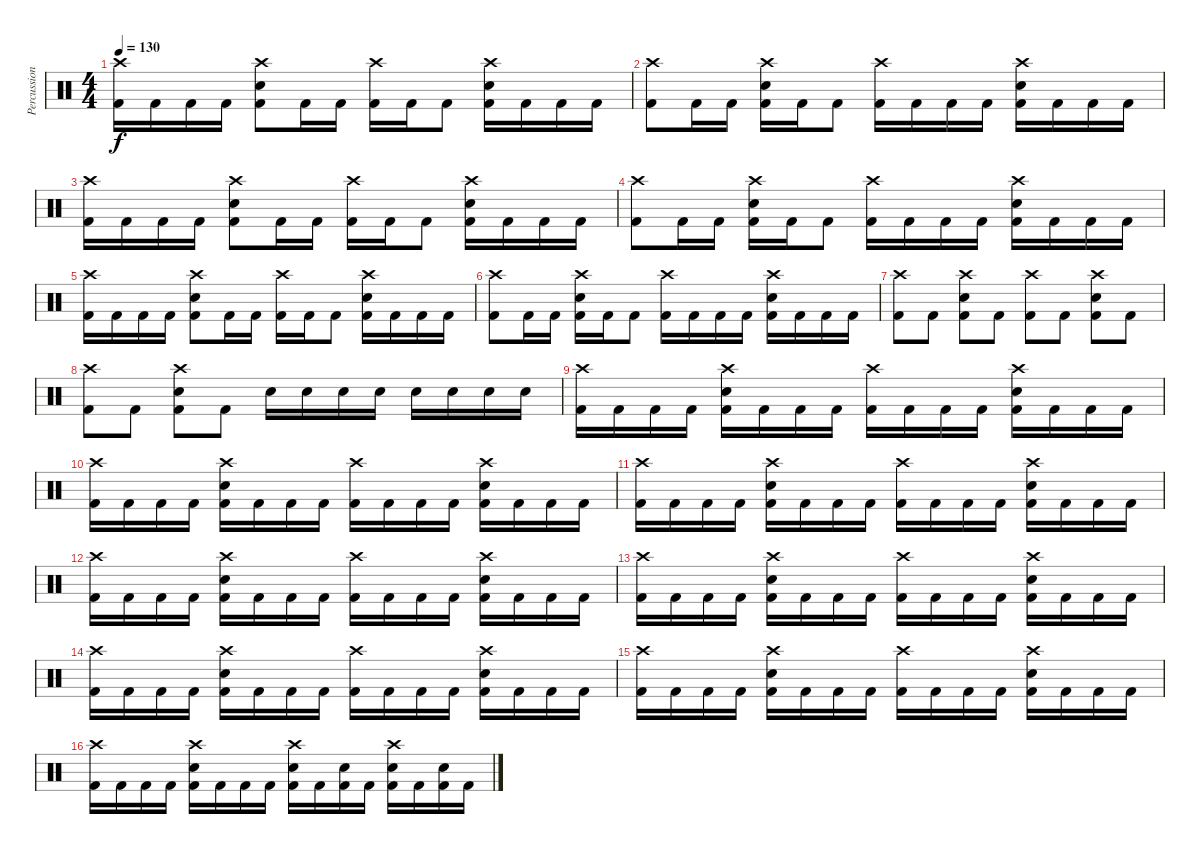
\track ("Percussion" "Percussion") {instrument percussion}
\staff {score}
\articulation defaults
\ts (4 4)
\tempo 130
\clef neutral
\ks c
("Crash high (hit)" "Kick (hit) 2").16{dy f} "Kick (hit) 2".16 "Kick (hit) 2".16 "Kick (hit) 2".16 ("Crash high (hit)" "Electric Snare (hit)" "Kick (hit) 2").8 "Kick (hit) 2".16 "Kick (hit) 2".16 ("Crash high (hit)" "Kick (hit) 2").16 "Kick (hit) 2".16 "Kick (hit) 2".8 ("Crash high (hit)" "Electric Snare (hit)" "Kick (hit) 2").16 "Kick (hit) 2".16 "Kick (hit) 2".16 "Kick (hit) 2".16 |
("Crash high (hit)" "Kick (hit) 2").8 "Kick (hit) 2".16 "Kick (hit) 2".16 ("Crash high (hit)" "Electric Snare (hit)" "Kick (hit) 2").16 "Kick (hit) 2".16 "Kick (hit) 2".8 ("Crash high (hit)" "Kick (hit) 2").16 "Kick (hit) 2".16 "Kick (hit) 2".16 "Kick (hit) 2".16 ("Crash high (hit)" "Electric Snare (hit)" "Kick (hit) 2").16 "Kick (hit) 2".16 "Kick (hit) 2".16 "Kick (hit) 2".16 |
("Crash high (hit)" "Kick (hit) 2").16 "Kick (hit) 2".16 "Kick (hit) 2".16 "Kick (hit) 2".16 ("Crash high (hit)" "Electric Snare (hit)" "Kick (hit) 2").8 "Kick (hit) 2".16 "Kick (hit) 2".16 ("Crash high (hit)" "Kick (hit) 2").16 "Kick (hit) 2".16 "Kick (hit) 2".8 ("Crash high (hit)" "Electric Snare (hit)" "Kick (hit) 2").16 "Kick (hit) 2".16 "Kick (hit) 2".16 "Kick (hit) 2".16 |
("Crash high (hit)" "Kick (hit) 2").8 "Kick (hit) 2".16 "Kick (hit) 2".16 ("Crash high (hit)" "Electric Snare (hit)" "Kick (hit) 2").16 "Kick (hit) 2".16 "Kick (hit) 2".8 ("Crash high (hit)" "Kick (hit) 2").16 "Kick (hit) 2".16 "Kick (hit) 2".16 "Kick (hit) 2".16 ("Crash high (hit)" "Electric Snare (hit)" "Kick (hit) 2").16 "Kick (hit) 2".16 "Kick (hit) 2".16 "Kick (hit) 2".16 |
("Crash high (hit)" "Kick (hit) 2").16 "Kick (hit) 2".16 "Kick (hit) 2".16 "Kick (hit) 2".16 ("Crash high (hit)" "Electric Snare (hit)" "Kick (hit) 2").8 "Kick (hit) 2".16 "Kick (hit) 2".16 ("Crash high (hit)" "Kick (hit) 2").16 "Kick (hit) 2".16 "Kick (hit) 2".8 ("Crash high (hit)" "Electric Snare (hit)" "Kick (hit) 2").16 "Kick (hit) 2".16 "Kick (hit) 2".16 "Kick (hit) 2".16 |
("Crash high (hit)" "Kick (hit) 2").8 "Kick (hit) 2".16 "Kick (hit) 2".16 ("Crash high (hit)" "Electric Snare (hit)" "Kick (hit) 2").16 "Kick (hit) 2".16 "Kick (hit) 2".8 ("Crash high (hit)" "Kick (hit) 2").16 "Kick (hit) 2".16 "Kick (hit) 2".16 "Kick (hit) 2".16 ("Crash high (hit)" "Electric Snare (hit)" "Kick (hit) 2").16 "Kick (hit) 2".16 "Kick (hit) 2".16 "Kick (hit) 2".16 |
("Crash high (hit)" "Kick (hit) 2").8 "Kick (hit) 2".8 ("Crash high (hit)" "Electric Snare (hit)" "Kick (hit) 2").8 "Kick (hit) 2".8 ("Crash high (hit)" "Kick (hit) 2").8 "Kick (hit) 2".8 ("Crash high (hit)" "Electric Snare (hit)" "Kick (hit) 2").8 "Kick (hit) 2".8 |
("Crash high (hit)" "Kick (hit) 2").8 "Kick (hit) 2".8 ("Crash high (hit)" "Electric Snare (hit)" "Kick (hit) 2").8 "Kick (hit) 2".8 "Electric Snare (hit)".16 "Electric Snare (hit)".16 "Electric Snare (hit)".16 "Electric Snare (hit)".16 "Electric Snare (hit)".16 "Electric Snare (hit)".16 "Electric Snare (hit)".16 "Electric Snare (hit)".16 |
("Crash high (hit)" "Kick (hit) 2").16 "Kick (hit) 2".16 "Kick (hit) 2".16 "Kick (hit) 2".16 ("Crash high (hit)" "Electric Snare (hit)" "Kick (hit) 2").16 "Kick (hit) 2".16 "Kick (hit) 2".16 "Kick (hit) 2".16 ("Crash high (hit)" "Kick (hit) 2").16 "Kick (hit) 2".16 "Kick (hit) 2".16 "Kick (hit) 2".16 ("Crash high (hit)" "Electric Snare (hit)" "Kick (hit) 2").16 "Kick (hit) 2".16 "Kick (hit) 2".16 "Kick (hit) 2".16 |
("Crash high (hit)" "Kick (hit) 2").16 "Kick (hit) 2".16 "Kick (hit) 2".16 "Kick (hit) 2".16 ("Crash high (hit)" "Electric Snare (hit)" "Kick (hit) 2").16 "Kick (hit) 2".16 "Kick (hit) 2".16 "Kick (hit) 2".16 ("Crash high (hit)" "Kick (hit) 2").16 "Kick (hit) 2".16 "Kick (hit) 2".16 "Kick (hit) 2".16 ("Crash high (hit)" "Electric Snare (hit)" "Kick (hit) 2").16 "Kick (hit) 2".16 "Kick (hit) 2".16 "Kick (hit) 2".16 |
("Crash high (hit)" "Kick (hit) 2").16 "Kick (hit) 2".16 "Kick (hit) 2".16 "Kick (hit) 2".16 ("Crash high (hit)" "Electric Snare (hit)" "Kick (hit) 2").16 "Kick (hit) 2".16 "Kick (hit) 2".16 "Kick (hit) 2".16 ("Crash high (hit)" "Kick (hit) 2").16 "Kick (hit) 2".16 "Kick (hit) 2".16 "Kick (hit) 2".16 ("Crash high (hit)" "Electric Snare (hit)" "Kick (hit) 2").16 "Kick (hit) 2".16 "Kick (hit) 2".16 "Kick (hit) 2".16 |
("Crash high (hit)" "Kick (hit) 2").16 "Kick (hit) 2".16 "Kick (hit) 2".16 "Kick (hit) 2".16 ("Crash high (hit)" "Electric Snare (hit)" "Kick (hit) 2").16 "Kick (hit) 2".16 "Kick (hit) 2".16 "Kick (hit) 2".16 ("Crash high (hit)" "Kick (hit) 2").16 "Kick (hit) 2".16 "Kick (hit) 2".16 "Kick (hit) 2".16 ("Crash high (hit)" "Electric Snare (hit)" "Kick (hit) 2").16 "Kick (hit) 2".16 "Kick (hit) 2".16 "Kick (hit) 2".16 |
("Crash high (hit)" "Kick (hit) 2").16 "Kick (hit) 2".16 "Kick (hit) 2".16 "Kick (hit) 2".16 ("Crash high (hit)" "Electric Snare (hit)" "Kick (hit) 2").16 "Kick (hit) 2".16 "Kick (hit) 2".16 "Kick (hit) 2".16 ("Crash high (hit)" "Kick (hit) 2").16 "Kick (hit) 2".16 "Kick (hit) 2".16 "Kick (hit) 2".16 ("Crash high (hit)" "Electric Snare (hit)" "Kick (hit) 2").16 "Kick (hit) 2".16 "Kick (hit) 2".16 "Kick (hit) 2".16 |
("Crash high (hit)" "Kick (hit) 2").16 "Kick (hit) 2".16 "Kick (hit) 2".16 "Kick (hit) 2".16 ("Crash high (hit)" "Electric Snare (hit)" "Kick (hit) 2").16 "Kick (hit) 2".16 "Kick (hit) 2".16 "Kick (hit) 2".16 ("Crash high (hit)" "Kick (hit) 2").16 "Kick (hit) 2".16 "Kick (hit) 2".16 "Kick (hit) 2".16 ("Crash high (hit)" "Electric Snare (hit)" "Kick (hit) 2").16 "Kick (hit) 2".16 "Kick (hit) 2".16 "Kick (hit) 2".16 |
("Crash high (hit)" "Kick (hit) 2").16 "Kick (hit) 2".16 "Kick (hit) 2".16 "Kick (hit) 2".16 ("Crash high (hit)" "Electric Snare (hit)" "Kick (hit) 2").16 "Kick (hit) 2".16 "Kick (hit) 2".16 "Kick (hit) 2".16 ("Crash high (hit)" "Kick (hit) 2").16 "Kick (hit) 2".16 "Kick (hit) 2".16 "Kick (hit) 2".16 ("Crash high (hit)" "Electric Snare (hit)" "Kick (hit) 2").16 "Kick (hit) 2".16 "Kick (hit) 2".16 "Kick (hit) 2".16 |
("Crash high (hit)" "Kick (hit) 2").16 "Kick (hit) 2".16 "Kick (hit) 2".16 "Kick (hit) 2".16 ("Crash high (hit)" "Electric Snare (hit)" "Kick (hit) 2").16 "Kick (hit) 2".16 "Kick (hit) 2".16 "Kick (hit) 2".16 ("Crash high (hit)" "Electric Snare (hit)" "Kick (hit) 2").16 "Kick (hit) 2".16 ("Electric Snare (hit)" "Kick (hit) 2").16 "Kick (hit) 2".16 ("Crash high (hit)" "Electric Snare (hit)" "Kick (hit) 2").16 "Kick (hit) 2".16 ("Electric Snare (hit)" "Kick (hit) 2").16 "Kick (hit) 2".16
